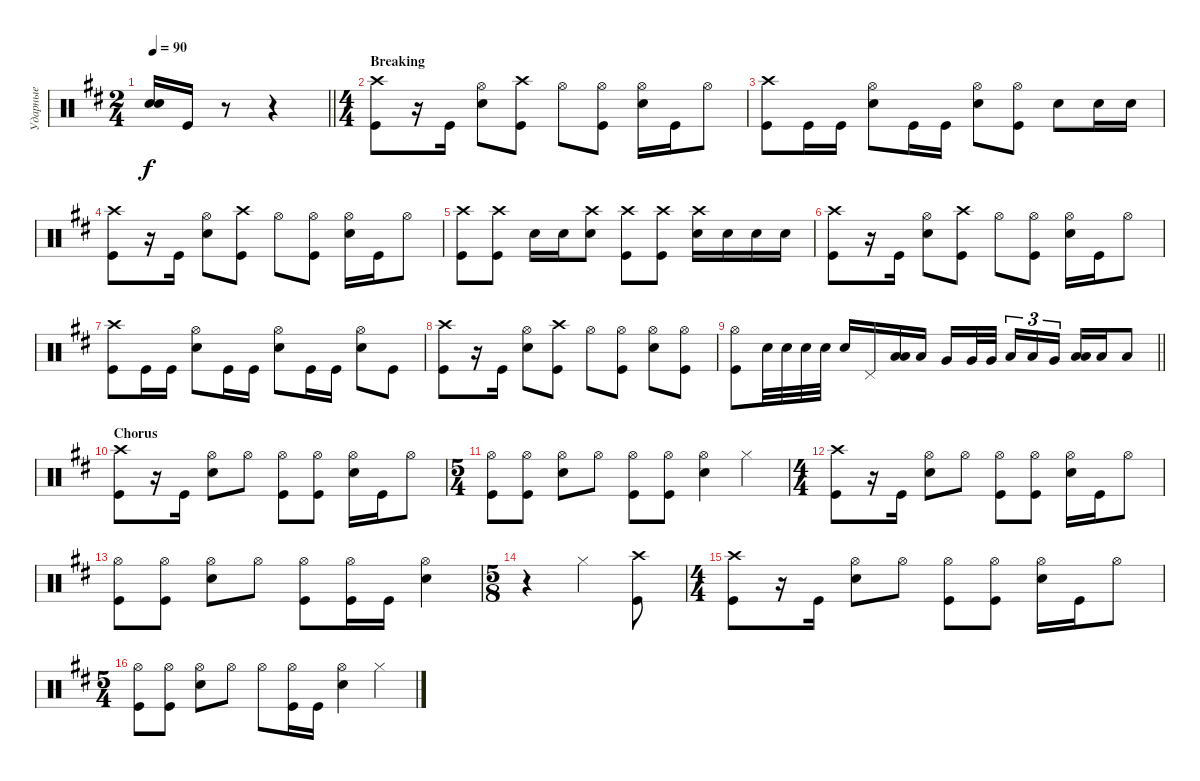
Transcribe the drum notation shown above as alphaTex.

\track ("Ударные" "Ударные") {instrument percussion}
\staff {score}
\articulation defaults
\ts (2 4)
\tempo 90
\clef neutral
\barLineRight lightlight
\ks bminor
("Snare (hit) 2" "Snare (hit) 2").16{bd 240 dy f} "Kick (hit)".16 r.8 r.4 |
\ts (4 4)
\section ("" "Breaking")
("Kick (hit)" "Crash high (hit)").8 r.16 "Kick (hit)".16 ("Snare (hit) 2" "Hi-Hat (open)").8 ("Kick (hit)" "Crash high (hit)").8 "Hi-Hat (open)".8 ("Kick (hit)" "Hi-Hat (open)").8 ("Snare (hit) 2" "Hi-Hat (open)").16 "Kick (hit)".16 "Hi-Hat (open)".8 |
("Kick (hit)" "Crash high (hit)").8 "Kick (hit)".16 "Kick (hit)".16 ("Snare (hit) 2" "Hi-Hat (open)").8 "Kick (hit)".16 "Kick (hit)".16 ("Snare (hit) 2" "Hi-Hat (open)").8 ("Kick (hit)" "Hi-Hat (open)").8 "Snare (hit) 2".8 "Snare (hit) 2".16 "Snare (hit) 2".16 |
("Kick (hit)" "Crash high (hit)").8 r.16 "Kick (hit)".16 ("Snare (hit) 2" "Hi-Hat (open)").8 ("Kick (hit)" "Crash high (hit)").8 "Hi-Hat (open)".8 ("Kick (hit)" "Hi-Hat (open)").8 ("Snare (hit) 2" "Hi-Hat (open)").16 "Kick (hit)".16 "Hi-Hat (open)".8 |
("Kick (hit)" "Crash high (hit)").8 ("Kick (hit)" "Crash high (hit)").8 "Snare (hit) 2".16 "Snare (hit) 2".16 ("Crash high (hit)" "Snare (hit) 2").8 ("Kick (hit)" "Crash high (hit)").8 ("Kick (hit)" "Crash high (hit)").8 ("Snare (hit) 2" "Crash high (hit)").16 "Snare (hit) 2".16 "Snare (hit) 2".16 "Snare (hit) 2".16 |
("Kick (hit)" "Crash high (hit)").8 r.16 "Kick (hit)".16 ("Snare (hit) 2" "Hi-Hat (open)").8 ("Kick (hit)" "Crash high (hit)").8 "Hi-Hat (open)".8 ("Kick (hit)" "Hi-Hat (open)").8 ("Snare (hit) 2" "Hi-Hat (open)").16 "Kick (hit)".16 "Hi-Hat (open)".8 |
("Kick (hit)" "Crash high (hit)").8 "Kick (hit)".16 "Kick (hit)".16 ("Snare (hit) 2" "Hi-Hat (open)").8 "Kick (hit)".16 "Kick (hit)".16 ("Snare (hit) 2" "Hi-Hat (open)").8 "Kick (hit)".16 "Kick (hit)".16 ("Snare (hit) 2" "Hi-Hat (open)").8 "Kick (hit)".8 |
("Kick (hit)" "Crash high (hit)").8 r.16 "Kick (hit)".16 ("Snare (hit) 2" "Hi-Hat (open)").8 ("Kick (hit)" "Crash high (hit)").8 "Hi-Hat (open)".8 ("Kick (hit)" "Hi-Hat (open)").8 ("Snare (hit) 2" "Hi-Hat (open)").8 ("Hi-Hat (open)" "Kick (hit)").8 |
\barLineRight lightlight
("Kick (hit)" "Hi-Hat (open)").8 "Snare (hit) 2".32 "Snare (hit) 2".32 "Snare (hit) 2".32 "Snare (hit) 2".32 "Snare (hit) 2".16 "Pedal Hi-Hat (hit)".16 ("Low Tom (hit)" "Low Tom (hit)").16{bd 240} "Low Tom (hit)".16 "Very Low Tom (hit)".16 "Very Low Tom (hit)".32 "Very Low Tom (hit)".32{beam splitsecondary} "Low Tom (hit)".16{tu (3 2)} "Low Tom (hit)".16{tu (3 2)} "Very Low Tom (hit)".16{tu (3 2)} ("Low Floor Tom (hit)" "Low Floor Tom (hit)").16{bd 240} "Low Floor Tom (hit)".16 "Low Floor Tom (hit)".8 |
\section ("" "Chorus")
("Kick (hit)" "Crash high (hit)").8 r.16 "Kick (hit)".16 ("Snare (hit) 2" "Hi-Hat (open)").8 "Hi-Hat (open)".8 ("Kick (hit)" "Hi-Hat (open)").8 ("Kick (hit)" "Hi-Hat (open)").8 ("Snare (hit) 2" "Hi-Hat (open)").16 "Kick (hit)".16 "Hi-Hat (open)".8 |
\ts (5 4)
("Kick (hit)" "Hi-Hat (open)").8 ("Kick (hit)" "Hi-Hat (open)").8 ("Snare (hit) 2" "Hi-Hat (open)").8 "Hi-Hat (open)".8 ("Kick (hit)" "Hi-Hat (open)").8 ("Kick (hit)" "Hi-Hat (open)").8 ("Snare (hit) 2" "Hi-Hat (open)").4 "Hi-Hat (closed)".4 |
\ts (4 4)
("Kick (hit)" "Crash high (hit)").8 r.16 "Kick (hit)".16 ("Snare (hit) 2" "Hi-Hat (open)").8 "Hi-Hat (open)".8 ("Kick (hit)" "Hi-Hat (open)").8 ("Kick (hit)" "Hi-Hat (open)").8 ("Snare (hit) 2" "Hi-Hat (open)").16 "Kick (hit)".16 "Hi-Hat (open)".8 |
("Kick (hit)" "Hi-Hat (open)").8 ("Kick (hit)" "Hi-Hat (open)").8 ("Snare (hit) 2" "Hi-Hat (open)").8 "Hi-Hat (open)".8 ("Kick (hit)" "Hi-Hat (open)").8 ("Kick (hit)" "Hi-Hat (open)").16 "Kick (hit)".16 ("Snare (hit) 2" "Hi-Hat (open)").4 |
\ts (5 8)
r.4 "Hi-Hat (closed)".4 ("Kick (hit)" "Crash high (hit)").8 |
\ts (4 4)
("Kick (hit)" "Crash high (hit)").8 r.16 "Kick (hit)".16 ("Snare (hit) 2" "Hi-Hat (open)").8 "Hi-Hat (open)".8 ("Kick (hit)" "Hi-Hat (open)").8 ("Kick (hit)" "Hi-Hat (open)").8 ("Snare (hit) 2" "Hi-Hat (open)").16 "Kick (hit)".16 "Hi-Hat (open)".8 |
\ts (5 4)
("Kick (hit)" "Hi-Hat (open)").8 ("Kick (hit)" "Hi-Hat (open)").8 ("Snare (hit) 2" "Hi-Hat (open)").8 "Hi-Hat (open)".8 "Hi-Hat (open)".8 ("Kick (hit)" "Hi-Hat (open)").16 "Kick (hit)".16 ("Snare (hit) 2" "Hi-Hat (open)").4 "Hi-Hat (closed)".4
